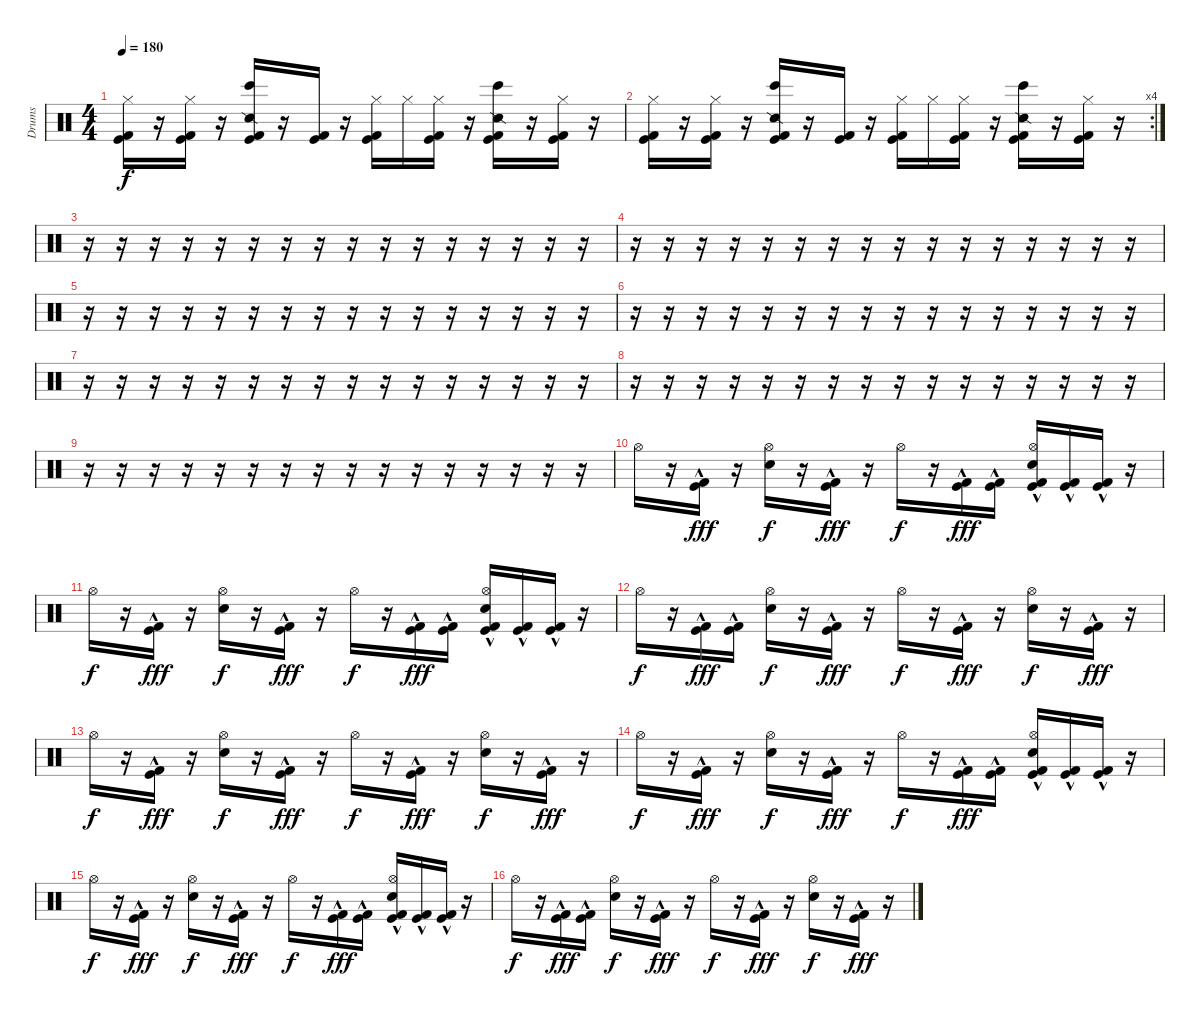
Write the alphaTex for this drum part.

\track ("Drums" "Drums") {instrument percussion}
\staff {score}
\articulation defaults
\ts (4 4)
\tempo 180
\clef neutral
\ks c
("Hi-Hat (closed)" "Kick (hit)" "Kick (hit) 2").16{dy f} r.16 ("Hi-Hat (closed)" "Kick (hit)" "Kick (hit) 2").16 r.16 ("Bongo High (hit)" "Snare (side stick) 2" "Kick (hit)" "Kick (hit) 2").16 r.16 ("Kick (hit)" "Kick (hit) 2").16 r.16 ("Hi-Hat (closed)" "Kick (hit)" "Kick (hit) 2").16 "Hi-Hat (closed)".16 ("Hi-Hat (closed)" "Kick (hit)" "Kick (hit) 2").16 r.16 ("Bongo High (hit)" "Snare (side stick) 2" "Kick (hit)" "Kick (hit) 2").16 r.16 ("Hi-Hat (closed)" "Kick (hit)" "Kick (hit) 2").16 r.16 |
\rc 4
("Hi-Hat (closed)" "Kick (hit)" "Kick (hit) 2").16 r.16 ("Hi-Hat (closed)" "Kick (hit)" "Kick (hit) 2").16 r.16 ("Bongo High (hit)" "Snare (side stick) 2" "Kick (hit)" "Kick (hit) 2").16 r.16 ("Kick (hit)" "Kick (hit) 2").16 r.16 ("Hi-Hat (closed)" "Kick (hit)" "Kick (hit) 2").16 "Hi-Hat (closed)".16 ("Hi-Hat (closed)" "Kick (hit)" "Kick (hit) 2").16 r.16 ("Bongo High (hit)" "Snare (side stick) 2" "Kick (hit)" "Kick (hit) 2").16 r.16 ("Hi-Hat (closed)" "Kick (hit)" "Kick (hit) 2").16 r.16 |
r.16 r.16 r.16 r.16 r.16 r.16 r.16 r.16 r.16 r.16 r.16 r.16 r.16 r.16 r.16 r.16 |
r.16 r.16 r.16 r.16 r.16 r.16 r.16 r.16 r.16 r.16 r.16 r.16 r.16 r.16 r.16 r.16 |
r.16 r.16 r.16 r.16 r.16 r.16 r.16 r.16 r.16 r.16 r.16 r.16 r.16 r.16 r.16 r.16 |
r.16 r.16 r.16 r.16 r.16 r.16 r.16 r.16 r.16 r.16 r.16 r.16 r.16 r.16 r.16 r.16 |
r.16 r.16 r.16 r.16 r.16 r.16 r.16 r.16 r.16 r.16 r.16 r.16 r.16 r.16 r.16 r.16 |
r.16 r.16 r.16 r.16 r.16 r.16 r.16 r.16 r.16 r.16 r.16 r.16 r.16 r.16 r.16 r.16 |
r.16 r.16 r.16 r.16 r.16 r.16 r.16 r.16 r.16 r.16 r.16 r.16 r.16 r.16 r.16 r.16 |
"Hi-Hat (open)".16 r.16 ("Kick (hit)"{hac} "Kick (hit) 2"{hac}).16{dy fff} r.16 ("Hi-Hat (open)" "Snare (hit) 2").16{dy f} r.16 ("Kick (hit)"{hac} "Kick (hit) 2"{hac}).16{dy fff} r.16 "Hi-Hat (open)".16{dy f} r.16 ("Kick (hit)"{hac} "Kick (hit) 2"{hac}).16{dy fff} ("Kick (hit)"{hac} "Kick (hit) 2"{hac}).16 ("Hi-Hat (open)" "Snare (hit) 2" "Kick (hit)"{hac} "Kick (hit) 2"{hac}).16 ("Kick (hit)"{hac} "Kick (hit) 2"{hac}).16 ("Kick (hit)"{hac} "Kick (hit) 2"{hac}).16 r.16 |
"Hi-Hat (open)".16{dy f} r.16 ("Kick (hit)"{hac} "Kick (hit) 2"{hac}).16{dy fff} r.16 ("Hi-Hat (open)" "Snare (hit) 2").16{dy f} r.16 ("Kick (hit)"{hac} "Kick (hit) 2"{hac}).16{dy fff} r.16 "Hi-Hat (open)".16{dy f} r.16 ("Kick (hit)"{hac} "Kick (hit) 2"{hac}).16{dy fff} ("Kick (hit)"{hac} "Kick (hit) 2"{hac}).16 ("Hi-Hat (open)" "Snare (hit) 2" "Kick (hit)"{hac} "Kick (hit) 2"{hac}).16 ("Kick (hit)"{hac} "Kick (hit) 2"{hac}).16 ("Kick (hit)"{hac} "Kick (hit) 2"{hac}).16 r.16 |
"Hi-Hat (open)".16{dy f} r.16 ("Kick (hit)"{hac} "Kick (hit) 2"{hac}).16{dy fff} ("Kick (hit)"{hac} "Kick (hit) 2"{hac}).16 ("Hi-Hat (open)" "Snare (hit) 2").16{dy f} r.16 ("Kick (hit)"{hac} "Kick (hit) 2"{hac}).16{dy fff} r.16 "Hi-Hat (open)".16{dy f} r.16 ("Kick (hit)"{hac} "Kick (hit) 2"{hac}).16{dy fff} r.16 ("Hi-Hat (open)" "Snare (hit) 2").16{dy f} r.16 ("Kick (hit)"{hac} "Kick (hit) 2"{hac}).16{dy fff} r.16 |
"Hi-Hat (open)".16{dy f} r.16 ("Kick (hit)"{hac} "Kick (hit) 2"{hac}).16{dy fff} r.16 ("Hi-Hat (open)" "Snare (hit) 2").16{dy f} r.16 ("Kick (hit)"{hac} "Kick (hit) 2"{hac}).16{dy fff} r.16 "Hi-Hat (open)".16{dy f} r.16 ("Kick (hit)"{hac} "Kick (hit) 2"{hac}).16{dy fff} r.16 ("Hi-Hat (open)" "Snare (hit) 2").16{dy f} r.16 ("Kick (hit)"{hac} "Kick (hit) 2"{hac}).16{dy fff} r.16 |
"Hi-Hat (open)".16{dy f} r.16 ("Kick (hit)"{hac} "Kick (hit) 2"{hac}).16{dy fff} r.16 ("Hi-Hat (open)" "Snare (hit) 2").16{dy f} r.16 ("Kick (hit)"{hac} "Kick (hit) 2"{hac}).16{dy fff} r.16 "Hi-Hat (open)".16{dy f} r.16 ("Kick (hit)"{hac} "Kick (hit) 2"{hac}).16{dy fff} ("Kick (hit)"{hac} "Kick (hit) 2"{hac}).16 ("Hi-Hat (open)" "Snare (hit) 2" "Kick (hit)"{hac} "Kick (hit) 2"{hac}).16 ("Kick (hit)"{hac} "Kick (hit) 2"{hac}).16 ("Kick (hit)"{hac} "Kick (hit) 2"{hac}).16 r.16 |
"Hi-Hat (open)".16{dy f} r.16 ("Kick (hit)"{hac} "Kick (hit) 2"{hac}).16{dy fff} r.16 ("Hi-Hat (open)" "Snare (hit) 2").16{dy f} r.16 ("Kick (hit)"{hac} "Kick (hit) 2"{hac}).16{dy fff} r.16 "Hi-Hat (open)".16{dy f} r.16 ("Kick (hit)"{hac} "Kick (hit) 2"{hac}).16{dy fff} ("Kick (hit)"{hac} "Kick (hit) 2"{hac}).16 ("Hi-Hat (open)" "Snare (hit) 2" "Kick (hit)"{hac} "Kick (hit) 2"{hac}).16 ("Kick (hit)"{hac} "Kick (hit) 2"{hac}).16 ("Kick (hit)"{hac} "Kick (hit) 2"{hac}).16 r.16 |
"Hi-Hat (open)".16{dy f} r.16 ("Kick (hit)"{hac} "Kick (hit) 2"{hac}).16{dy fff} ("Kick (hit)"{hac} "Kick (hit) 2"{hac}).16 ("Hi-Hat (open)" "Snare (hit) 2").16{dy f} r.16 ("Kick (hit)"{hac} "Kick (hit) 2"{hac}).16{dy fff} r.16 "Hi-Hat (open)".16{dy f} r.16 ("Kick (hit)"{hac} "Kick (hit) 2"{hac}).16{dy fff} r.16 ("Hi-Hat (open)" "Snare (hit) 2").16{dy f} r.16 ("Kick (hit)"{hac} "Kick (hit) 2"{hac}).16{dy fff} r.16
